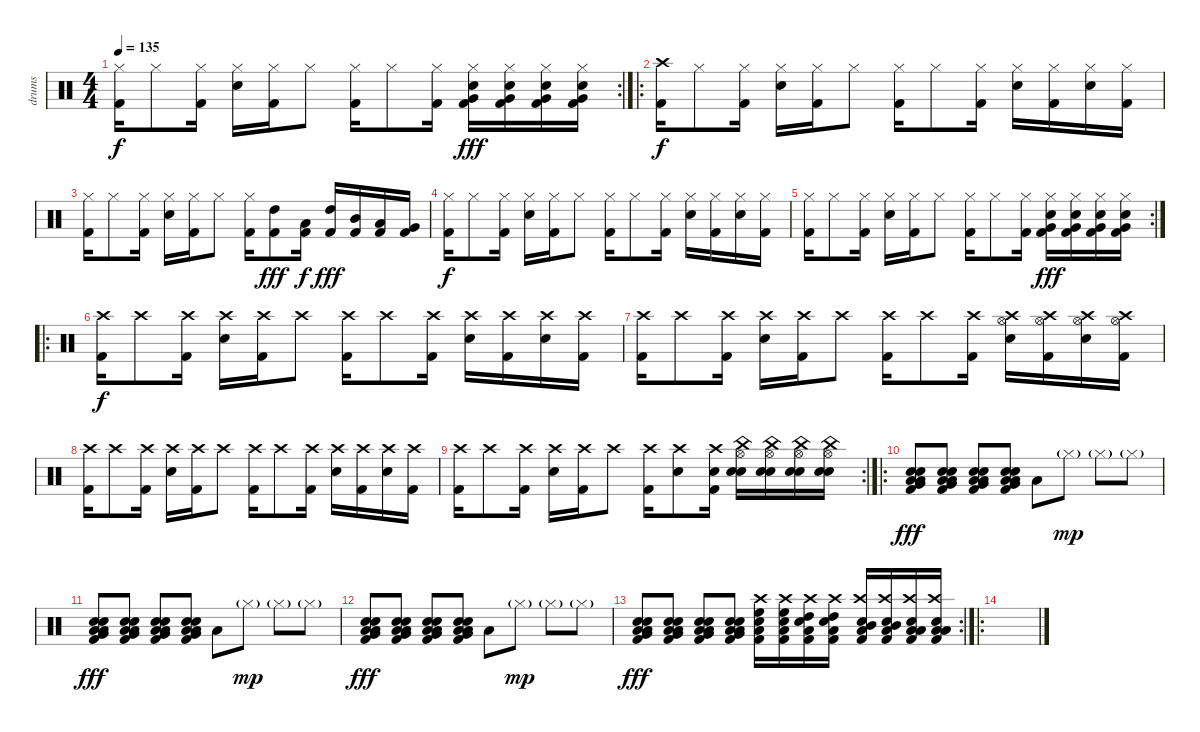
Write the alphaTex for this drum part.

\track ("drums" "drums") {instrument percussion}
\staff {score}
\articulation defaults
\rc 2
\ts (4 4)
\tempo 135
\clef neutral
\ks c
("Hi-Hat (closed)" "Kick (hit) 2").16{dy f} "Hi-Hat (closed)".8 ("Hi-Hat (closed)" "Kick (hit) 2").16 ("Hi-Hat (closed)" "Electric Snare (hit)").16 ("Hi-Hat (closed)" "Kick (hit) 2").16 "Hi-Hat (closed)".8 ("Hi-Hat (closed)" "Kick (hit) 2").16 "Hi-Hat (closed)".8 ("Hi-Hat (closed)" "Kick (hit) 2").16 ("Hi-Hat (closed)" "Kick (hit) 2" "Very Low Tom (hit)" "Electric Snare (hit)").16{dy fff} ("Hi-Hat (closed)" "Kick (hit) 2" "Very Low Tom (hit)" "Electric Snare (hit)").16 ("Hi-Hat (closed)" "Kick (hit) 2" "Very Low Tom (hit)" "Electric Snare (hit)").16 ("Hi-Hat (closed)" "Kick (hit) 2" "Very Low Tom (hit)" "Electric Snare (hit)").16 |
\ro
("Crash high (hit)" "Kick (hit) 2").16{dy f} "Hi-Hat (closed)".8 ("Hi-Hat (closed)" "Kick (hit) 2").16 ("Hi-Hat (closed)" "Electric Snare (hit)").16 ("Hi-Hat (closed)" "Kick (hit) 2").16 "Hi-Hat (closed)".8 ("Hi-Hat (closed)" "Kick (hit) 2").16 "Hi-Hat (closed)".8 ("Hi-Hat (closed)" "Kick (hit) 2").16 ("Hi-Hat (closed)" "Electric Snare (hit)").16 ("Hi-Hat (closed)" "Kick (hit) 2").16 ("Hi-Hat (closed)" "Electric Snare (hit)").16 ("Hi-Hat (closed)" "Kick (hit) 2").16 |
("Hi-Hat (closed)" "Kick (hit) 2").16 "Hi-Hat (closed)".8 ("Hi-Hat (closed)" "Kick (hit) 2").16 ("Hi-Hat (closed)" "Electric Snare (hit)").16 ("Hi-Hat (closed)" "Kick (hit) 2").16 "Hi-Hat (closed)".8 ("Hi-Hat (closed)" "Kick (hit) 2").16 ("High Tom (hit)" "Kick (hit) 2").8{dy fff} ("Low Tom (hit)" "Kick (hit) 2").16{dy f} ("High Tom (hit)" "Kick (hit) 2").16{dy fff} ("Mid Tom (hit)" "Kick (hit) 2").16 ("Low Tom (hit)" "Kick (hit) 2").16 ("Very Low Tom (hit)" "Kick (hit) 2").16 |
("Hi-Hat (closed)" "Kick (hit) 2").16{dy f} "Hi-Hat (closed)".8 ("Hi-Hat (closed)" "Kick (hit) 2").16 ("Hi-Hat (closed)" "Electric Snare (hit)").16 ("Hi-Hat (closed)" "Kick (hit) 2").16 "Hi-Hat (closed)".8 ("Hi-Hat (closed)" "Kick (hit) 2").16 "Hi-Hat (closed)".8 ("Hi-Hat (closed)" "Kick (hit) 2").16 ("Hi-Hat (closed)" "Electric Snare (hit)").16 ("Hi-Hat (closed)" "Kick (hit) 2").16 ("Hi-Hat (closed)" "Electric Snare (hit)").16 ("Hi-Hat (closed)" "Kick (hit) 2").16 |
\rc 2
("Hi-Hat (closed)" "Kick (hit) 2").16 "Hi-Hat (closed)".8 ("Hi-Hat (closed)" "Kick (hit) 2").16 ("Hi-Hat (closed)" "Electric Snare (hit)").16 ("Hi-Hat (closed)" "Kick (hit) 2").16 "Hi-Hat (closed)".8 ("Hi-Hat (closed)" "Kick (hit) 2").16 "Hi-Hat (closed)".8 ("Hi-Hat (closed)" "Kick (hit) 2").16 ("Hi-Hat (closed)" "Kick (hit) 2" "Very Low Tom (hit)" "Electric Snare (hit)").16{dy fff} ("Hi-Hat (closed)" "Kick (hit) 2" "Very Low Tom (hit)" "Electric Snare (hit)").16 ("Hi-Hat (closed)" "Kick (hit) 2" "Very Low Tom (hit)" "Electric Snare (hit)").16 ("Hi-Hat (closed)" "Kick (hit) 2" "Very Low Tom (hit)" "Electric Snare (hit)").16 |
\ro
("Crash high (hit)" "Kick (hit) 2").16{dy f} "Crash high (hit)".8 ("Crash high (hit)" "Kick (hit) 2").16 ("Crash high (hit)" "Electric Snare (hit)").16 ("Crash high (hit)" "Kick (hit) 2").16 "Crash high (hit)".8 ("Crash high (hit)" "Kick (hit) 2").16 "Crash high (hit)".8 ("Crash high (hit)" "Kick (hit) 2").16 ("Crash high (hit)" "Electric Snare (hit)").16 ("Crash high (hit)" "Kick (hit) 2").16 ("Crash high (hit)" "Electric Snare (hit)").16 ("Crash high (hit)" "Kick (hit) 2").16 |
("Crash high (hit)" "Kick (hit) 2").16 "Crash high (hit)".8 ("Crash high (hit)" "Kick (hit) 2").16 ("Crash high (hit)" "Electric Snare (hit)").16 ("Crash high (hit)" "Kick (hit) 2").16 "Crash high (hit)".8 ("Crash high (hit)" "Kick (hit) 2").16 "Crash high (hit)".8 ("Crash high (hit)" "Kick (hit) 2").16 ("Crash high (hit)" "Hi-Hat (open)" "Electric Snare (hit)").16 ("Crash high (hit)" "Hi-Hat (open)" "Kick (hit) 2").16 ("Crash high (hit)" "Hi-Hat (open)" "Electric Snare (hit)").16 ("Crash high (hit)" "Hi-Hat (open)" "Kick (hit) 2").16 |
("Crash high (hit)" "Kick (hit) 2").16 "Crash high (hit)".8 ("Crash high (hit)" "Kick (hit) 2").16 ("Crash high (hit)" "Electric Snare (hit)").16 ("Crash high (hit)" "Kick (hit) 2").16 "Crash high (hit)".8 ("Crash high (hit)" "Kick (hit) 2").16 "Crash high (hit)".8 ("Crash high (hit)" "Kick (hit) 2").16 ("Crash high (hit)" "Electric Snare (hit)").16 ("Crash high (hit)" "Kick (hit) 2").16 ("Crash high (hit)" "Electric Snare (hit)").16 ("Crash high (hit)" "Kick (hit) 2").16 |
\rc 2
("Crash high (hit)" "Kick (hit) 2").16 "Crash high (hit)".8 ("Crash high (hit)" "Kick (hit) 2").16 ("Crash high (hit)" "Electric Snare (hit)").16 ("Crash high (hit)" "Kick (hit) 2").16 "Crash high (hit)".8 ("Crash high (hit)" "Kick (hit) 2").16 ("Crash high (hit)" "Electric Snare (hit)").8 ("Crash high (hit)" "Electric Snare (hit)" "Kick (hit) 2").16 ("China (hit)" "Hi-Hat (open)" "Electric Snare (hit)" "Electric Snare (hit)").16 ("China (hit)" "Hi-Hat (open)" "Electric Snare (hit)" "Electric Snare (hit)").16 ("China (hit)" "Hi-Hat (open)" "Electric Snare (hit)" "Electric Snare (hit)").16 ("China (hit)" "Hi-Hat (open)" "Electric Snare (hit)" "Electric Snare (hit)").16 |
\ro
("Electric Snare (hit)" "Low Floor Tom (hit)" "Low Tom (hit)" "Very Low Tom (hit)" "Kick (hit) 2" "Electric Snare (hit)").8{dy fff} ("Electric Snare (hit)" "Low Floor Tom (hit)" "Low Tom (hit)" "Very Low Tom (hit)" "Kick (hit) 2" "Electric Snare (hit)").8 ("Electric Snare (hit)" "Low Floor Tom (hit)" "Low Tom (hit)" "Very Low Tom (hit)" "Kick (hit) 2" "Electric Snare (hit)").8 ("Electric Snare (hit)" "Low Floor Tom (hit)" "Low Tom (hit)" "Very Low Tom (hit)" "Kick (hit) 2" "Electric Snare (hit)").8 "Low Floor Tom (hit)".8 "Hi-Hat (closed)"{g}.8{dy mp} "Hi-Hat (closed)"{g}.8 "Hi-Hat (closed)"{g}.8 |
("Electric Snare (hit)" "Low Floor Tom (hit)" "Low Tom (hit)" "Very Low Tom (hit)" "Kick (hit) 2" "Electric Snare (hit)").8{dy fff} ("Electric Snare (hit)" "Low Floor Tom (hit)" "Low Tom (hit)" "Very Low Tom (hit)" "Kick (hit) 2" "Electric Snare (hit)").8 ("Electric Snare (hit)" "Low Floor Tom (hit)" "Low Tom (hit)" "Very Low Tom (hit)" "Kick (hit) 2" "Electric Snare (hit)").8 ("Electric Snare (hit)" "Low Floor Tom (hit)" "Low Tom (hit)" "Very Low Tom (hit)" "Kick (hit) 2" "Electric Snare (hit)").8 "Low Floor Tom (hit)".8 "Hi-Hat (closed)"{g}.8{dy mp} "Hi-Hat (closed)"{g}.8 "Hi-Hat (closed)"{g}.8 |
("Electric Snare (hit)" "Low Floor Tom (hit)" "Low Tom (hit)" "Very Low Tom (hit)" "Kick (hit) 2" "Electric Snare (hit)").8{dy fff} ("Electric Snare (hit)" "Low Floor Tom (hit)" "Low Tom (hit)" "Very Low Tom (hit)" "Kick (hit) 2" "Electric Snare (hit)").8 ("Electric Snare (hit)" "Low Floor Tom (hit)" "Low Tom (hit)" "Very Low Tom (hit)" "Kick (hit) 2" "Electric Snare (hit)").8 ("Electric Snare (hit)" "Low Floor Tom (hit)" "Low Tom (hit)" "Very Low Tom (hit)" "Kick (hit) 2" "Electric Snare (hit)").8 "Low Floor Tom (hit)".8 "Hi-Hat (closed)"{g}.8{dy mp} "Hi-Hat (closed)"{g}.8 "Hi-Hat (closed)"{g}.8 |
\rc 2
("Electric Snare (hit)" "Low Floor Tom (hit)" "Low Tom (hit)" "Very Low Tom (hit)" "Kick (hit) 2" "Electric Snare (hit)").8{dy fff} ("Electric Snare (hit)" "Low Floor Tom (hit)" "Low Tom (hit)" "Very Low Tom (hit)" "Kick (hit) 2" "Electric Snare (hit)").8 ("Electric Snare (hit)" "Low Floor Tom (hit)" "Low Tom (hit)" "Very Low Tom (hit)" "Kick (hit) 2" "Electric Snare (hit)").8 ("Electric Snare (hit)" "Low Floor Tom (hit)" "Low Tom (hit)" "Very Low Tom (hit)" "Kick (hit) 2" "Electric Snare (hit)").8 ("High Floor Tom (hit)" "Crash high (hit)" "Kick (hit) 2" "Electric Snare (hit)" "Low Floor Tom (hit)").16 ("High Floor Tom (hit)" "Crash high (hit)" "Kick (hit) 2" "Electric Snare (hit)" "Low Floor Tom (hit)").16 ("High Tom (hit)" "Crash high (hit)" "Kick (hit) 2" "Electric Snare (hit)" "Low Floor Tom (hit)").16 ("High Tom (hit)" "Crash high (hit)" "Kick (hit) 2" "Electric Snare (hit)" "Low Floor Tom (hit)").16 ("Mid Tom (hit)" "Crash high (hit)" "Kick (hit) 2" "Electric Snare (hit)" "Low Floor Tom (hit)").16 ("Mid Tom (hit)" "Crash high (hit)" "Kick (hit) 2" "Electric Snare (hit)" "Low Floor Tom (hit)").16 ("Low Tom (hit)" "Crash high (hit)" "Kick (hit) 2" "Electric Snare (hit)" "Low Floor Tom (hit)").16 ("Low Tom (hit)" "Crash high (hit)" "Kick (hit) 2" "Electric Snare (hit)" "Low Floor Tom (hit)").16 |
\ro
